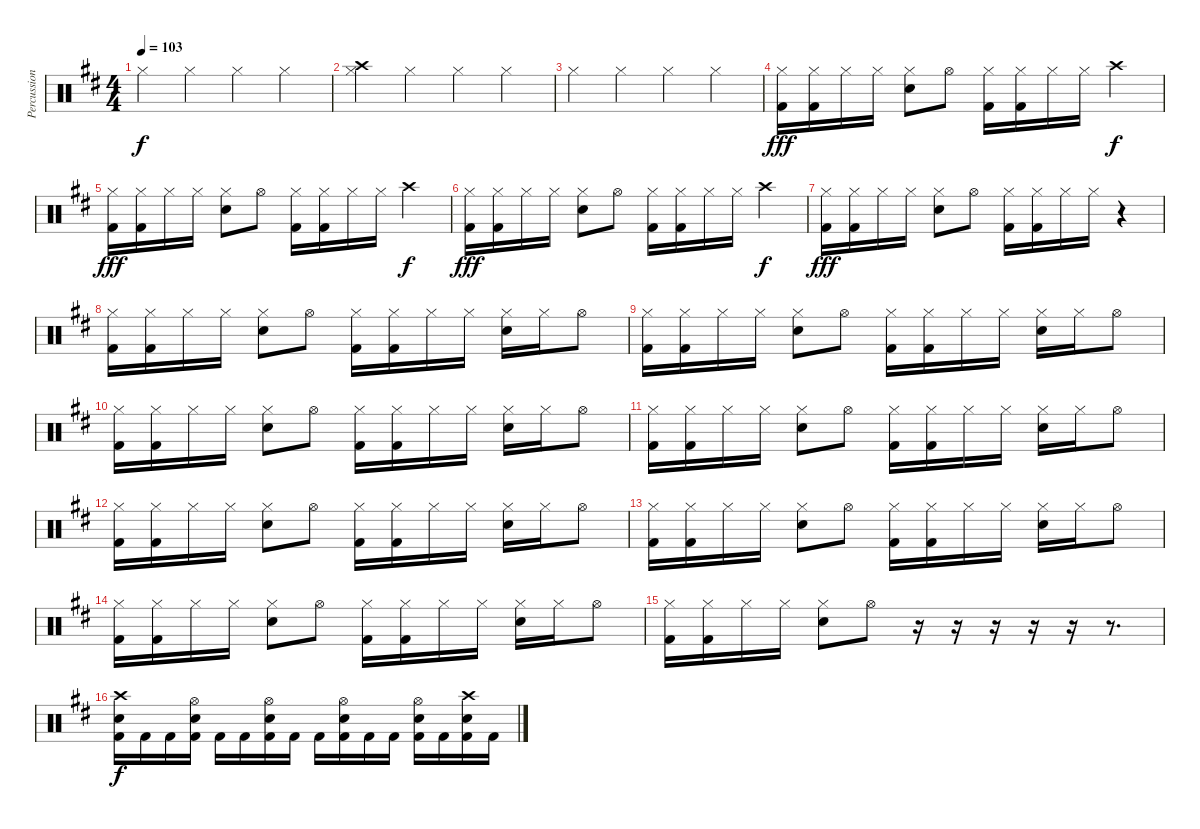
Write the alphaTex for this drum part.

\track ("Percussion" "Percussion") {instrument percussion}
\staff {score}
\articulation defaults
\ts (4 4)
\tempo 103
\clef neutral
\ks d "Hi-Hat (closed)".4{dy f} "Hi-Hat (closed)".4 "Hi-Hat (closed)".4 "Hi-Hat (closed)".4
|
("Hi-Hat (closed)" "Crash high (hit)").4 "Hi-Hat (closed)".4 "Hi-Hat (closed)".4 "Hi-Hat (closed)".4 |
"Hi-Hat (closed)".4 "Hi-Hat (closed)".4 "Hi-Hat (closed)".4 "Hi-Hat (closed)".4 |
("Hi-Hat (closed)" "Kick (hit) 2").16{dy fff} ("Hi-Hat (closed)" "Kick (hit) 2").16 "Hi-Hat (closed)".16 "Hi-Hat (closed)".16 ("Electric Snare (hit)" "Hi-Hat (closed)").8 "Hi-Hat (open)".8 ("Hi-Hat (closed)" "Kick (hit) 2").16 ("Hi-Hat (closed)" "Kick (hit) 2").16 "Hi-Hat (closed)".16 "Hi-Hat (closed)".16 "Crash high (hit)".4{dy f} |
("Hi-Hat (closed)" "Kick (hit) 2").16{dy fff} ("Hi-Hat (closed)" "Kick (hit) 2").16 "Hi-Hat (closed)".16 "Hi-Hat (closed)".16 ("Electric Snare (hit)" "Hi-Hat (closed)").8 "Hi-Hat (open)".8 ("Hi-Hat (closed)" "Kick (hit) 2").16 ("Hi-Hat (closed)" "Kick (hit) 2").16 "Hi-Hat (closed)".16 "Hi-Hat (closed)".16 "Crash high (hit)".4{dy f} |
("Hi-Hat (closed)" "Kick (hit) 2").16{dy fff} ("Hi-Hat (closed)" "Kick (hit) 2").16 "Hi-Hat (closed)".16 "Hi-Hat (closed)".16 ("Electric Snare (hit)" "Hi-Hat (closed)").8 "Hi-Hat (open)".8 ("Hi-Hat (closed)" "Kick (hit) 2").16 ("Hi-Hat (closed)" "Kick (hit) 2").16 "Hi-Hat (closed)".16 "Hi-Hat (closed)".16 "Crash high (hit)".4{dy f} |
("Hi-Hat (closed)" "Kick (hit) 2").16{dy fff} ("Hi-Hat (closed)" "Kick (hit) 2").16 "Hi-Hat (closed)".16 "Hi-Hat (closed)".16 ("Electric Snare (hit)" "Hi-Hat (closed)").8 "Hi-Hat (open)".8 ("Hi-Hat (closed)" "Kick (hit) 2").16 ("Hi-Hat (closed)" "Kick (hit) 2").16 "Hi-Hat (closed)".16 "Hi-Hat (closed)".16 r.4 |
("Hi-Hat (closed)" "Kick (hit) 2").16 ("Hi-Hat (closed)" "Kick (hit) 2").16 "Hi-Hat (closed)".16 "Hi-Hat (closed)".16 ("Electric Snare (hit)" "Hi-Hat (closed)").8 "Hi-Hat (open)".8 ("Hi-Hat (closed)" "Kick (hit) 2").16 ("Hi-Hat (closed)" "Kick (hit) 2").16 "Hi-Hat (closed)".16 "Hi-Hat (closed)".16 ("Electric Snare (hit)" "Hi-Hat (closed)").16 "Hi-Hat (closed)".16 "Hi-Hat (open)".8 |
("Hi-Hat (closed)" "Kick (hit) 2").16 ("Hi-Hat (closed)" "Kick (hit) 2").16 "Hi-Hat (closed)".16 "Hi-Hat (closed)".16 ("Electric Snare (hit)" "Hi-Hat (closed)").8 "Hi-Hat (open)".8 ("Hi-Hat (closed)" "Kick (hit) 2").16 ("Hi-Hat (closed)" "Kick (hit) 2").16 "Hi-Hat (closed)".16 "Hi-Hat (closed)".16 ("Electric Snare (hit)" "Hi-Hat (closed)").16 "Hi-Hat (closed)".16 "Hi-Hat (open)".8 |
("Hi-Hat (closed)" "Kick (hit) 2").16 ("Hi-Hat (closed)" "Kick (hit) 2").16 "Hi-Hat (closed)".16 "Hi-Hat (closed)".16 ("Electric Snare (hit)" "Hi-Hat (closed)").8 "Hi-Hat (open)".8 ("Hi-Hat (closed)" "Kick (hit) 2").16 ("Hi-Hat (closed)" "Kick (hit) 2").16 "Hi-Hat (closed)".16 "Hi-Hat (closed)".16 ("Electric Snare (hit)" "Hi-Hat (closed)").16 "Hi-Hat (closed)".16 "Hi-Hat (open)".8 |
("Hi-Hat (closed)" "Kick (hit) 2").16 ("Hi-Hat (closed)" "Kick (hit) 2").16 "Hi-Hat (closed)".16 "Hi-Hat (closed)".16 ("Electric Snare (hit)" "Hi-Hat (closed)").8 "Hi-Hat (open)".8 ("Hi-Hat (closed)" "Kick (hit) 2").16 ("Hi-Hat (closed)" "Kick (hit) 2").16 "Hi-Hat (closed)".16 "Hi-Hat (closed)".16 ("Electric Snare (hit)" "Hi-Hat (closed)").16 "Hi-Hat (closed)".16 "Hi-Hat (open)".8 |
("Hi-Hat (closed)" "Kick (hit) 2").16 ("Hi-Hat (closed)" "Kick (hit) 2").16 "Hi-Hat (closed)".16 "Hi-Hat (closed)".16 ("Electric Snare (hit)" "Hi-Hat (closed)").8 "Hi-Hat (open)".8 ("Hi-Hat (closed)" "Kick (hit) 2").16 ("Hi-Hat (closed)" "Kick (hit) 2").16 "Hi-Hat (closed)".16 "Hi-Hat (closed)".16 ("Electric Snare (hit)" "Hi-Hat (closed)").16 "Hi-Hat (closed)".16 "Hi-Hat (open)".8 |
("Hi-Hat (closed)" "Kick (hit) 2").16 ("Hi-Hat (closed)" "Kick (hit) 2").16 "Hi-Hat (closed)".16 "Hi-Hat (closed)".16 ("Electric Snare (hit)" "Hi-Hat (closed)").8 "Hi-Hat (open)".8 ("Hi-Hat (closed)" "Kick (hit) 2").16 ("Hi-Hat (closed)" "Kick (hit) 2").16 "Hi-Hat (closed)".16 "Hi-Hat (closed)".16 ("Electric Snare (hit)" "Hi-Hat (closed)").16 "Hi-Hat (closed)".16 "Hi-Hat (open)".8 |
("Hi-Hat (closed)" "Kick (hit) 2").16 ("Hi-Hat (closed)" "Kick (hit) 2").16 "Hi-Hat (closed)".16 "Hi-Hat (closed)".16 ("Electric Snare (hit)" "Hi-Hat (closed)").8 "Hi-Hat (open)".8 ("Hi-Hat (closed)" "Kick (hit) 2").16 ("Hi-Hat (closed)" "Kick (hit) 2").16 "Hi-Hat (closed)".16 "Hi-Hat (closed)".16 ("Electric Snare (hit)" "Hi-Hat (closed)").16 "Hi-Hat (closed)".16 "Hi-Hat (open)".8 |
("Hi-Hat (closed)" "Kick (hit) 2").16 ("Hi-Hat (closed)" "Kick (hit) 2").16 "Hi-Hat (closed)".16 "Hi-Hat (closed)".16 ("Electric Snare (hit)" "Hi-Hat (closed)").8 "Hi-Hat (open)".8 r.16 r.16 r.16 r.16 r.16 r.8{d} |
("Crash high (hit)" "Electric Snare (hit)" "Kick (hit) 2").16{dy f} "Kick (hit) 2".16 "Kick (hit) 2".16 ("Hi-Hat (open)" "Electric Snare (hit)" "Kick (hit) 2").16 "Kick (hit) 2".16 "Kick (hit) 2".16 ("Hi-Hat (open)" "Electric Snare (hit)" "Kick (hit) 2").16 "Kick (hit) 2".16 "Kick (hit) 2".16 ("Hi-Hat (open)" "Electric Snare (hit)" "Kick (hit) 2").16 "Kick (hit) 2".16 "Kick (hit) 2".16 ("Hi-Hat (open)" "Electric Snare (hit)" "Kick (hit) 2").16 "Kick (hit) 2".16 ("Crash high (hit)" "Electric Snare (hit)" "Kick (hit) 2").16 "Kick (hit) 2".16
